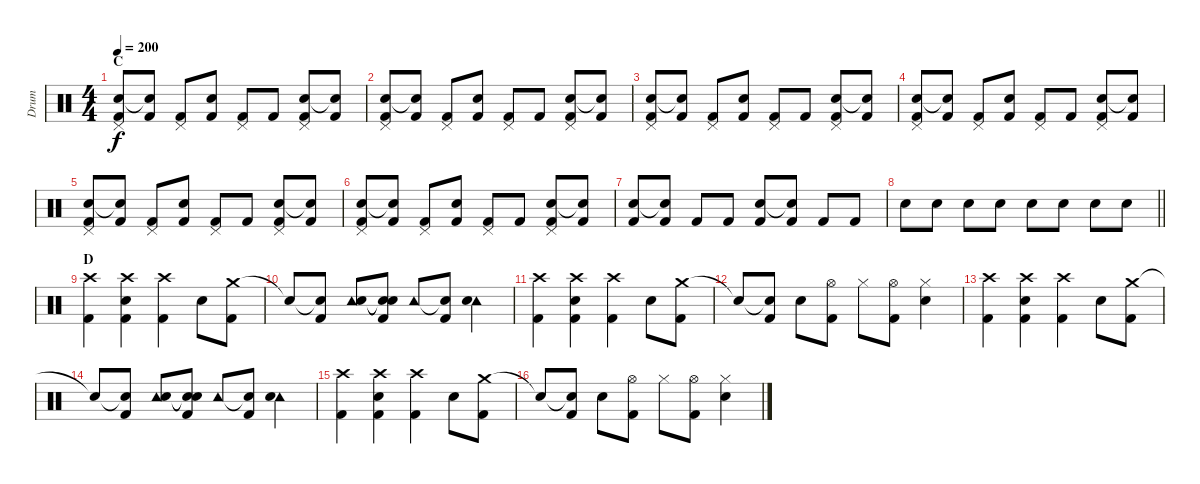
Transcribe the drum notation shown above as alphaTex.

\track ("Drum" "Drum") {instrument percussion}
\staff {score}
\articulation defaults
\ts (4 4)
\section ("" "C")
\tempo 200
\clef neutral
\ks c
("Snare (hit) 2" "Pedal Hi-Hat (hit)" "Kick (hit) 2").8{dy f} ("Snare (hit)"{t} "Kick (hit) 2").8 ("Pedal Hi-Hat (hit)" "Kick (hit) 2").8 ("Snare (hit) 2" "Kick (hit) 2").8 ("Pedal Hi-Hat (hit)" "Kick (hit) 2").8 "Kick (hit) 2".8 ("Snare (hit) 2" "Pedal Hi-Hat (hit)" "Kick (hit) 2").8 ("Snare (hit)"{t} "Kick (hit) 2").8 |
("Snare (hit) 2" "Pedal Hi-Hat (hit)" "Kick (hit) 2").8 ("Snare (hit)"{t} "Kick (hit) 2").8 ("Pedal Hi-Hat (hit)" "Kick (hit) 2").8 ("Snare (hit) 2" "Kick (hit) 2").8 ("Pedal Hi-Hat (hit)" "Kick (hit) 2").8 "Kick (hit) 2".8 ("Snare (hit) 2" "Pedal Hi-Hat (hit)" "Kick (hit) 2").8 ("Snare (hit)"{t} "Kick (hit) 2").8 |
("Snare (hit) 2" "Pedal Hi-Hat (hit)" "Kick (hit) 2").8 ("Snare (hit)"{t} "Kick (hit) 2").8 ("Pedal Hi-Hat (hit)" "Kick (hit) 2").8 ("Snare (hit) 2" "Kick (hit) 2").8 ("Pedal Hi-Hat (hit)" "Kick (hit) 2").8 "Kick (hit) 2".8 ("Snare (hit) 2" "Pedal Hi-Hat (hit)" "Kick (hit) 2").8 ("Snare (hit)"{t} "Kick (hit) 2").8 |
("Snare (hit) 2" "Pedal Hi-Hat (hit)" "Kick (hit) 2").8 ("Snare (hit)"{t} "Kick (hit) 2").8 ("Pedal Hi-Hat (hit)" "Kick (hit) 2").8 ("Snare (hit) 2" "Kick (hit) 2").8 ("Pedal Hi-Hat (hit)" "Kick (hit) 2").8 "Kick (hit) 2".8 ("Snare (hit) 2" "Pedal Hi-Hat (hit)" "Kick (hit) 2").8 ("Snare (hit)"{t} "Kick (hit) 2").8 |
("Snare (hit) 2" "Pedal Hi-Hat (hit)" "Kick (hit) 2").8 ("Snare (hit)"{t} "Kick (hit) 2").8 ("Pedal Hi-Hat (hit)" "Kick (hit) 2").8 ("Snare (hit) 2" "Kick (hit) 2").8 ("Pedal Hi-Hat (hit)" "Kick (hit) 2").8 "Kick (hit) 2".8 ("Snare (hit) 2" "Pedal Hi-Hat (hit)" "Kick (hit) 2").8 ("Snare (hit)"{t} "Kick (hit) 2").8 |
("Snare (hit) 2" "Pedal Hi-Hat (hit)" "Kick (hit) 2").8 ("Snare (hit)"{t} "Kick (hit) 2").8 ("Pedal Hi-Hat (hit)" "Kick (hit) 2").8 ("Snare (hit) 2" "Kick (hit) 2").8 ("Pedal Hi-Hat (hit)" "Kick (hit) 2").8 "Kick (hit) 2".8 ("Snare (hit) 2" "Pedal Hi-Hat (hit)" "Kick (hit) 2").8 ("Snare (hit)"{t} "Kick (hit) 2").8 |
("Snare (hit) 2" "Kick (hit) 2").8 ("Snare (hit)"{t} "Kick (hit) 2").8 "Kick (hit) 2".8 "Kick (hit) 2".8 ("Snare (hit) 2" "Kick (hit) 2").8 ("Snare (hit)"{t} "Kick (hit) 2").8 "Kick (hit) 2".8 "Kick (hit) 2".8 |
\barLineRight lightlight "Snare (hit) 2".8 "Snare (hit) 2".8 "Snare (hit) 2".8 "Snare (hit) 2".8 "Snare (hit) 2".8 "Snare (hit) 2".8 "Snare (hit) 2".8 "Snare (hit) 2".8
|
\section ("" "D")
("Crash high (hit)" "Kick (hit) 2").4 ("Crash high (hit)" "Snare (hit) 2" "Kick (hit) 2").4 ("Crash high (hit)" "Kick (hit) 2").4 "Snare (hit) 2".8 ("Crash medium (hit)" "Kick (hit) 2").8 |
"Snare (hit)"{t}.8 ("Snare (hit)"{t} "Kick (hit) 2").8 ("Tambourine (hit)" "Snare (hit) 2").8 ("Snare (hit)"{t} "Snare (hit)"{t} "Kick (hit) 2").8 "Tambourine (hit)".8 ("Snare (hit)"{t} "Kick (hit) 2").8 ("Tambourine (hit)" "Snare (hit) 2").4 |
("Crash high (hit)" "Kick (hit) 2").4 ("Crash high (hit)" "Snare (hit) 2" "Kick (hit) 2").4 ("Crash high (hit)" "Kick (hit) 2").4 "Snare (hit) 2".8 ("Crash medium (hit)" "Kick (hit) 2").8 |
"Snare (hit)"{t}.8 ("Snare (hit)"{t} "Kick (hit) 2").8 "Snare (hit) 2".8 ("Hi-Hat (open)" "Kick (hit) 2").8 "Hi-Hat (closed)".8 ("Hi-Hat (open)" "Kick (hit) 2").8 ("Hi-Hat (closed)" "Snare (hit) 2").4 |
("Crash high (hit)" "Kick (hit) 2").4 ("Crash high (hit)" "Snare (hit) 2" "Kick (hit) 2").4 ("Crash high (hit)" "Kick (hit) 2").4 "Snare (hit) 2".8 ("Crash medium (hit)" "Kick (hit) 2").8 |
"Snare (hit)"{t}.8 ("Snare (hit)"{t} "Kick (hit) 2").8 ("Tambourine (hit)" "Snare (hit) 2").8 ("Snare (hit)"{t} "Snare (hit)"{t} "Kick (hit) 2").8 "Tambourine (hit)".8 ("Snare (hit)"{t} "Kick (hit) 2").8 ("Tambourine (hit)" "Snare (hit) 2").4 |
("Crash high (hit)" "Kick (hit) 2").4 ("Crash high (hit)" "Snare (hit) 2" "Kick (hit) 2").4 ("Crash high (hit)" "Kick (hit) 2").4 "Snare (hit) 2".8 ("Crash medium (hit)" "Kick (hit) 2").8 |
"Snare (hit)"{t}.8 ("Snare (hit)"{t} "Kick (hit) 2").8 "Snare (hit) 2".8 ("Hi-Hat (open)" "Kick (hit) 2").8 "Hi-Hat (closed)".8 ("Hi-Hat (open)" "Kick (hit) 2").8 ("Hi-Hat (closed)" "Snare (hit) 2").4
